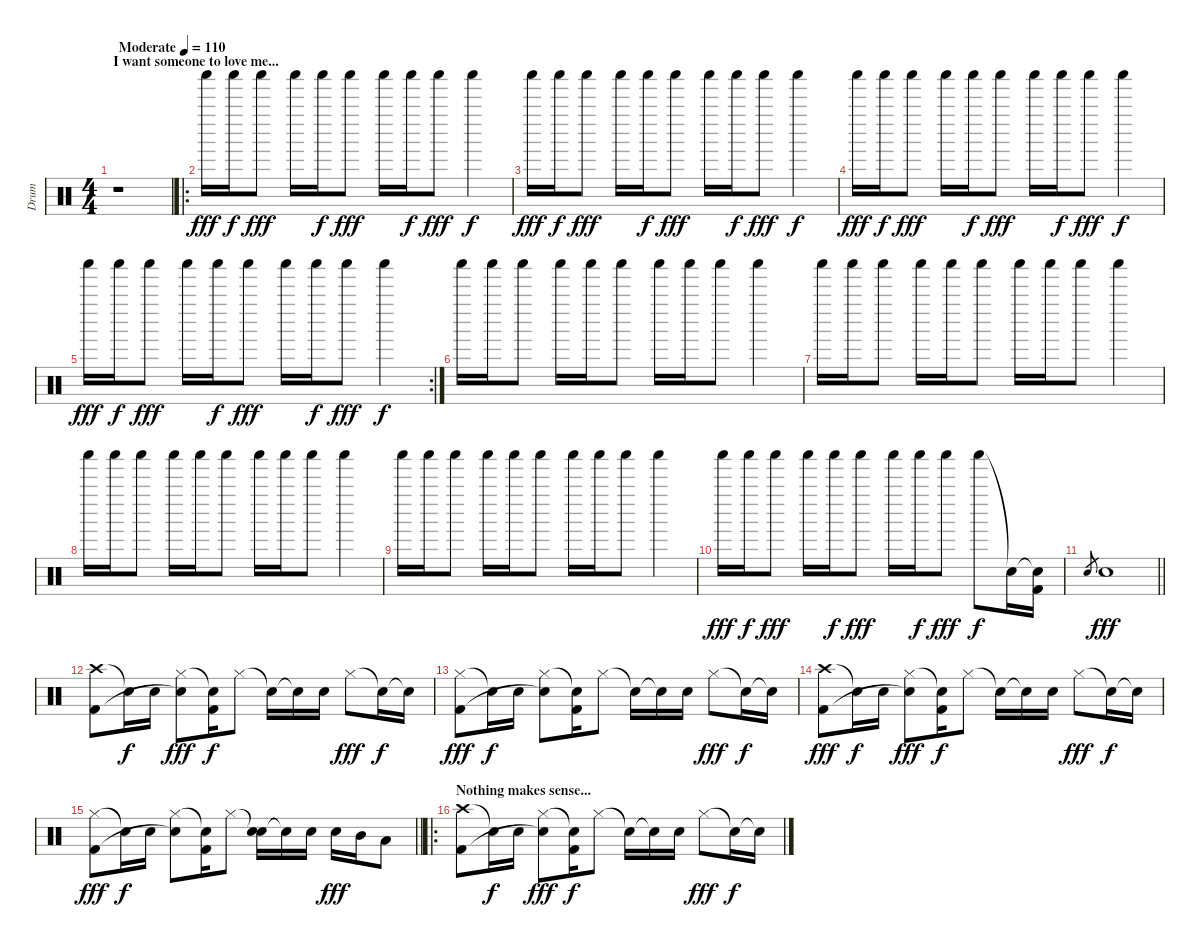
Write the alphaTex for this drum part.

\track ("Drum" "Drum") {instrument percussion}
\staff {score}
\articulation defaults
\ts (4 4)
\section ("" "I want someone to love me...")
\tempo (110 "Moderate")
\clef neutral
\ks c
r.1{dy fff} |
\ro "Shaker (hit)".16 "Shaker (hit)".16{dy f} "Shaker (hit)".8{dy fff} "Shaker (hit)".16 "Shaker (hit)".16{dy f} "Shaker (hit)".8{dy fff} "Shaker (hit)".16 "Shaker (hit)".16{dy f} "Shaker (hit)".8{dy fff} "Shaker (hit)".4{dy f}
|
"Shaker (hit)".16{dy fff} "Shaker (hit)".16{dy f} "Shaker (hit)".8{dy fff} "Shaker (hit)".16 "Shaker (hit)".16{dy f} "Shaker (hit)".8{dy fff} "Shaker (hit)".16 "Shaker (hit)".16{dy f} "Shaker (hit)".8{dy fff} "Shaker (hit)".4{dy f} |
"Shaker (hit)".16{dy fff} "Shaker (hit)".16{dy f} "Shaker (hit)".8{dy fff} "Shaker (hit)".16 "Shaker (hit)".16{dy f} "Shaker (hit)".8{dy fff} "Shaker (hit)".16 "Shaker (hit)".16{dy f} "Shaker (hit)".8{dy fff} "Shaker (hit)".4{dy f} |
\rc 2 "Shaker (hit)".16{dy fff} "Shaker (hit)".16{dy f} "Shaker (hit)".8{dy fff} "Shaker (hit)".16 "Shaker (hit)".16{dy f} "Shaker (hit)".8{dy fff} "Shaker (hit)".16 "Shaker (hit)".16{dy f} "Shaker (hit)".8{dy fff} "Shaker (hit)".4{dy f}
|
"Shaker (hit)".16 "Shaker (hit)".16 "Shaker (hit)".8 "Shaker (hit)".16 "Shaker (hit)".16 "Shaker (hit)".8 "Shaker (hit)".16 "Shaker (hit)".16 "Shaker (hit)".8 "Shaker (hit)".4 |
"Shaker (hit)".16 "Shaker (hit)".16 "Shaker (hit)".8 "Shaker (hit)".16 "Shaker (hit)".16 "Shaker (hit)".8 "Shaker (hit)".16 "Shaker (hit)".16 "Shaker (hit)".8 "Shaker (hit)".4 |
"Shaker (hit)".16 "Shaker (hit)".16 "Shaker (hit)".8 "Shaker (hit)".16 "Shaker (hit)".16 "Shaker (hit)".8 "Shaker (hit)".16 "Shaker (hit)".16 "Shaker (hit)".8 "Shaker (hit)".4 |
"Shaker (hit)".16 "Shaker (hit)".16 "Shaker (hit)".8 "Shaker (hit)".16 "Shaker (hit)".16 "Shaker (hit)".8 "Shaker (hit)".16 "Shaker (hit)".16 "Shaker (hit)".8 "Shaker (hit)".4 |
"Shaker (hit)".16{dy fff} "Shaker (hit)".16{dy f} "Shaker (hit)".8{dy fff} "Shaker (hit)".16 "Shaker (hit)".16{dy f} "Shaker (hit)".8{dy fff} "Shaker (hit)".16 "Shaker (hit)".16{dy f} "Shaker (hit)".8{dy fff} "Shaker (hit)".8{dy f} "Snare (hit)"{t}.16 ("Snare (hit)"{t} "Kick (hit) 2").16 |
\barLineRight lightlight "Electric Snare (hit)".8{gr} "Electric Snare (hit)".1{dy fff}
|
("Crash high (hit)" "Kick (hit) 2").8 "Snare (hit)"{t}.16{dy f} "Electric Snare (hit)".16 ("Hi-Hat (closed)" "Electric Snare (hit)"{t}).8{dy fff} ("Snare (hit)"{t} "Kick (hit) 2").16{dy f} "Hi-Hat (closed)".8 "Snare (hit)"{t}.16 "Snare (hit)"{t}.16 "Electric Snare (hit)".16 "Hi-Hat (closed)".8{dy fff} "Snare (hit)"{t}.16{dy f} "Snare (hit)"{t}.16 |
("Hi-Hat (closed)" "Kick (hit) 2").8{dy fff} "Snare (hit)"{t}.16{dy f} "Electric Snare (hit)".16 ("Hi-Hat (closed)" "Electric Snare (hit)"{t}).8 ("Snare (hit)"{t} "Kick (hit) 2").16 "Hi-Hat (closed)".8 "Snare (hit)"{t}.16 "Snare (hit)"{t}.16 "Electric Snare (hit)".16 "Hi-Hat (closed)".8{dy fff} "Snare (hit)"{t}.16{dy f} "Snare (hit)"{t}.16 |
("Crash high (hit)" "Kick (hit) 2").8{dy fff} "Snare (hit)"{t}.16{dy f} "Electric Snare (hit)".16 ("Hi-Hat (closed)" "Electric Snare (hit)"{t}).8{dy fff} ("Snare (hit)"{t} "Kick (hit) 2").16{dy f} "Hi-Hat (closed)".8 "Snare (hit)"{t}.16 "Snare (hit)"{t}.16 "Electric Snare (hit)".16 "Hi-Hat (closed)".8{dy fff} "Snare (hit)"{t}.16{dy f} "Snare (hit)"{t}.16 |
\barLineRight lightlight
("Hi-Hat (closed)" "Kick (hit) 2").8{dy fff} "Snare (hit)"{t}.16{dy f} "Electric Snare (hit)".16 ("Hi-Hat (closed)" "Electric Snare (hit)"{t}).8 ("Snare (hit)"{t} "Kick (hit) 2").16 "Hi-Hat (closed)".8 ("Snare (hit)"{t} "Electric Snare (hit)").16 "Snare (hit)"{t}.16 "Electric Snare (hit)".16 "Electric Snare (hit)".16{dy fff} "Mid Tom (hit)".16 "Low Tom (hit)".8 |
\ro
\section ("" "Nothing makes sense...")
("Crash high (hit)" "Kick (hit) 2").8 "Snare (hit)"{t}.16{dy f} "Electric Snare (hit)".16 ("Hi-Hat (closed)" "Electric Snare (hit)"{t}).8{dy fff} ("Snare (hit)"{t} "Kick (hit) 2").16{dy f} "Hi-Hat (closed)".8 "Snare (hit)"{t}.16 "Snare (hit)"{t}.16 "Electric Snare (hit)".16 "Hi-Hat (closed)".8{dy fff} "Snare (hit)"{t}.16{dy f} "Snare (hit)"{t}.16
